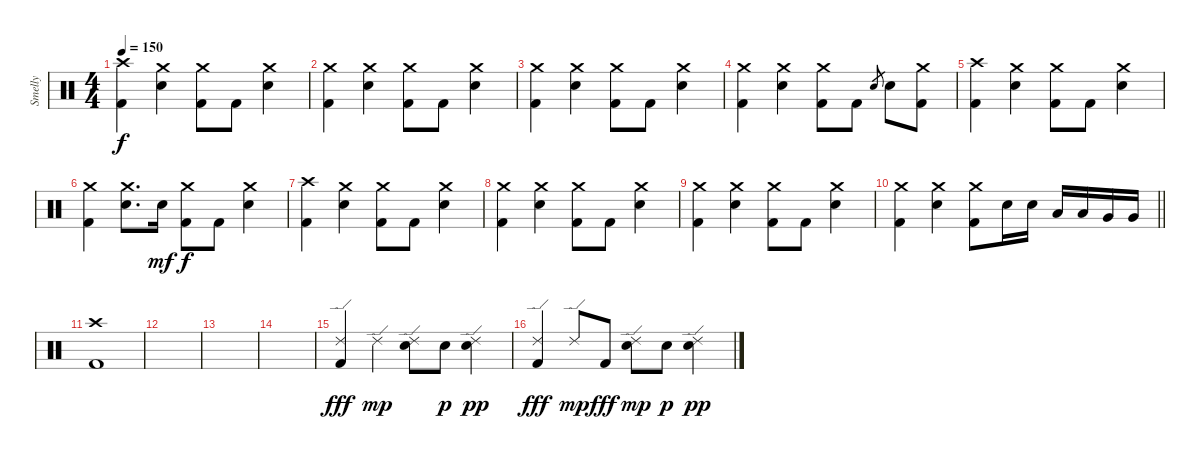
\track ("Smelly" "Smelly") {instrument percussion}
\staff {score}
\articulation defaults
\ts (4 4)
\tempo 150
\clef neutral
\ks c
("Crash high (hit)" "Kick (hit) 2").4{dy f} ("Crash medium (hit)" "Electric Snare (hit)").4 ("Crash medium (hit)" "Kick (hit) 2").8 "Kick (hit) 2".8 ("Crash medium (hit)" "Electric Snare (hit)").4 |
("Crash medium (hit)" "Kick (hit) 2").4 ("Crash medium (hit)" "Electric Snare (hit)").4 ("Crash medium (hit)" "Kick (hit) 2").8 "Kick (hit) 2".8 ("Crash medium (hit)" "Electric Snare (hit)").4 |
("Crash medium (hit)" "Kick (hit) 2").4 ("Crash medium (hit)" "Electric Snare (hit)").4 ("Crash medium (hit)" "Kick (hit) 2").8 "Kick (hit) 2".8 ("Crash medium (hit)" "Electric Snare (hit)").4 |
("Crash medium (hit)" "Kick (hit) 2").4 ("Crash medium (hit)" "Electric Snare (hit)").4 ("Crash medium (hit)" "Kick (hit) 2").8 "Kick (hit) 2".8 "Electric Snare (hit)".8{gr} "Electric Snare (hit)".8 ("Crash medium (hit)" "Kick (hit) 2").8 |
("Crash high (hit)" "Kick (hit) 2").4 ("Crash medium (hit)" "Electric Snare (hit)").4 ("Crash medium (hit)" "Kick (hit) 2").8 "Kick (hit) 2".8 ("Crash medium (hit)" "Electric Snare (hit)").4 |
("Crash medium (hit)" "Kick (hit) 2").4 ("Crash medium (hit)" "Electric Snare (hit)").8{d} "Electric Snare (hit)".16{dy mf} ("Crash medium (hit)" "Kick (hit) 2").8{dy f} "Kick (hit) 2".8 ("Crash medium (hit)" "Electric Snare (hit)").4 |
("Crash high (hit)" "Kick (hit) 2").4 ("Crash medium (hit)" "Electric Snare (hit)").4 ("Crash medium (hit)" "Kick (hit) 2").8 "Kick (hit) 2".8 ("Crash medium (hit)" "Electric Snare (hit)").4 |
("Crash medium (hit)" "Kick (hit) 2").4 ("Crash medium (hit)" "Electric Snare (hit)").4 ("Crash medium (hit)" "Kick (hit) 2").8 "Kick (hit) 2".8 ("Crash medium (hit)" "Electric Snare (hit)").4 |
("Crash medium (hit)" "Kick (hit) 2").4 ("Crash medium (hit)" "Electric Snare (hit)").4 ("Crash medium (hit)" "Kick (hit) 2").8 "Kick (hit) 2".8 ("Crash medium (hit)" "Electric Snare (hit)").4 |
\barLineRight lightlight
("Crash medium (hit)" "Kick (hit) 2").4 ("Crash medium (hit)" "Electric Snare (hit)").4 ("Crash medium (hit)" "Kick (hit) 2").8 "Electric Snare (hit)".16 "Electric Snare (hit)".16 "Low Tom (hit)".16 "Low Tom (hit)".16 "Very Low Tom (hit)".16 "Very Low Tom (hit)".16 |
\section ("" "")
("Crash high (hit)" "Kick (hit) 2").1 |
|
|
|
("Ride (edge) 2" "Kick (hit) 2").4{dy fff volume 16} "Ride (edge) 2".4{dy mp} ("Ride (edge) 2" "Snare (hit) 2").8 "Snare (hit) 2".8{dy p} ("Ride (edge) 2" "Snare (hit) 2").4{dy pp} |
("Ride (edge) 2" "Kick (hit) 2").4{dy fff} "Ride (edge) 2".8{dy mp} "Kick (hit) 2".8{dy fff} ("Ride (edge) 2" "Snare (hit) 2").8{dy mp} "Snare (hit) 2".8{dy p} ("Ride (edge) 2" "Snare (hit) 2").4{dy pp}
